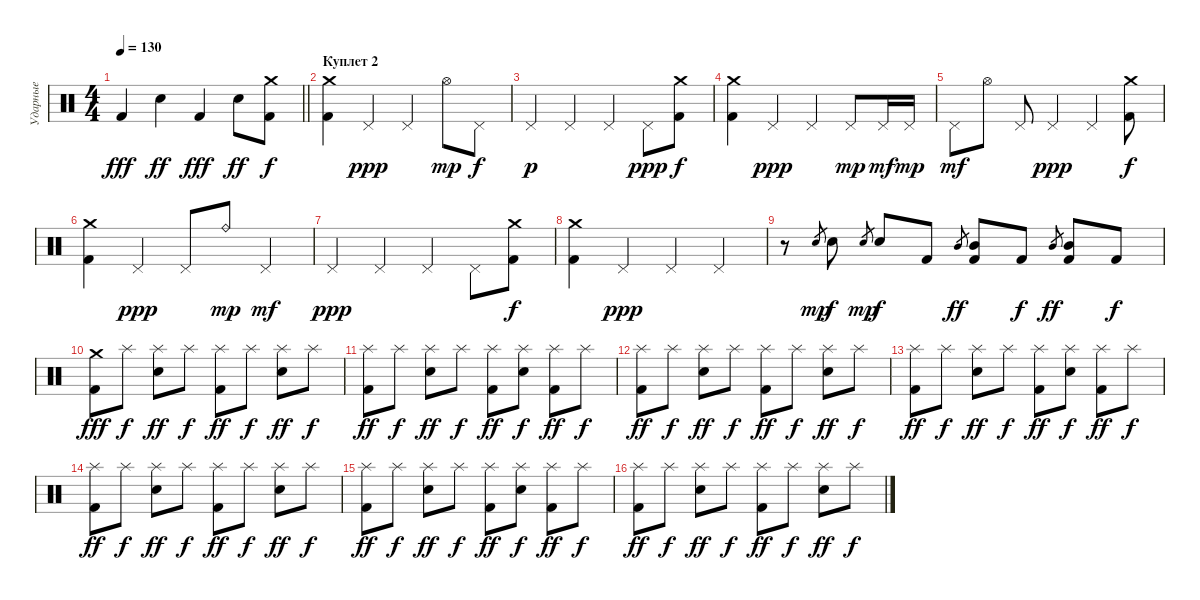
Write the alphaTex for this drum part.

\track ("Ударные" "Ударные") {instrument percussion}
\staff {score}
\articulation defaults
\ts (4 4)
\tempo 130
\clef neutral
\barLineRight lightlight
\ks c "Kick (hit) 2".4{dy fff} "Electric Snare (hit)".4{dy ff} "Kick (hit) 2".4{dy fff} "Electric Snare (hit)".8{dy ff}
("Kick (hit) 2" "Crash medium (hit)").8{dy f} |
\section ("" "Куплет 2")
("Kick (hit) 2" "Crash medium (hit)").4 "Pedal Hi-Hat (hit)".4{dy ppp} "Pedal Hi-Hat (hit)".4 "Hi-Hat (open)".8{dy mp} "Pedal Hi-Hat (hit)".8{dy f} |
"Pedal Hi-Hat (hit)".4{dy p} "Pedal Hi-Hat (hit)".4 "Pedal Hi-Hat (hit)".4 "Pedal Hi-Hat (hit)".8{dy ppp} ("Kick (hit) 2" "Crash medium (hit)").8{dy f} |
("Kick (hit) 2" "Crash medium (hit)").4 "Pedal Hi-Hat (hit)".4{dy ppp} "Pedal Hi-Hat (hit)".4 "Pedal Hi-Hat (hit)".8{dy mp} "Pedal Hi-Hat (hit)".16{dy mf} "Pedal Hi-Hat (hit)".16{dy mp} |
"Pedal Hi-Hat (hit)".8{dy mf} "Hi-Hat (open)".8 "Pedal Hi-Hat (hit)".8 "Pedal Hi-Hat (hit)".4{dy ppp} "Pedal Hi-Hat (hit)".4 ("Kick (hit) 2" "Crash medium (hit)").8{dy f} |
("Kick (hit) 2" "Crash medium (hit)").4 "Pedal Hi-Hat (hit)".4{dy ppp} "Pedal Hi-Hat (hit)".8 "Ride (bell)".8{dy mp} "Pedal Hi-Hat (hit)".4{dy mf} |
"Pedal Hi-Hat (hit)".4{dy ppp} "Pedal Hi-Hat (hit)".4 "Pedal Hi-Hat (hit)".4 "Pedal Hi-Hat (hit)".8 ("Kick (hit) 2" "Crash medium (hit)").8{dy f} |
("Kick (hit) 2" "Crash medium (hit)").4 "Pedal Hi-Hat (hit)".4{dy ppp} "Pedal Hi-Hat (hit)".4 "Pedal Hi-Hat (hit)".4 |
r.8 "Electric Snare (hit)".8{gr dy mp} "Electric Snare (hit)".8{dy f} "Electric Snare (hit)".8{gr dy mp} "Electric Snare (hit)".8{dy f} "Kick (hit) 2".8 "Mid Tom (hit)".8{gr dy ff} ("Kick (hit) 2" "Mid Tom (hit)").8 "Kick (hit) 2".8{dy f} "Mid Tom (hit)".8{gr dy ff} ("Kick (hit) 2" "Mid Tom (hit)").8 "Kick (hit) 2".8{dy f} |
("Kick (hit) 2" "Crash medium (hit)").8{dy fff} "Splash (hit)".8{dy f} ("Electric Snare (hit)" "Splash (hit)").8{dy ff} "Splash (hit)".8{dy f} ("Kick (hit) 2" "Splash (hit)").8{dy ff} "Splash (hit)".8{dy f} ("Electric Snare (hit)" "Splash (hit)").8{dy ff} "Splash (hit)".8{dy f} |
("Kick (hit) 2" "Splash (hit)").8{dy ff} "Splash (hit)".8{dy f} ("Electric Snare (hit)" "Splash (hit)").8{dy ff} "Splash (hit)".8{dy f} ("Kick (hit) 2" "Splash (hit)").8{dy ff} ("Electric Snare (hit)" "Splash (hit)").8{dy f} ("Kick (hit) 2" "Splash (hit)").8{dy ff} "Splash (hit)".8{dy f} |
("Kick (hit) 2" "Splash (hit)").8{dy ff} "Splash (hit)".8{dy f} ("Electric Snare (hit)" "Splash (hit)").8{dy ff} "Splash (hit)".8{dy f} ("Kick (hit) 2" "Splash (hit)").8{dy ff} "Splash (hit)".8{dy f} ("Electric Snare (hit)" "Splash (hit)").8{dy ff} "Splash (hit)".8{dy f} |
("Kick (hit) 2" "Splash (hit)").8{dy ff} "Splash (hit)".8{dy f} ("Electric Snare (hit)" "Splash (hit)").8{dy ff} "Splash (hit)".8{dy f} ("Kick (hit) 2" "Splash (hit)").8{dy ff} ("Electric Snare (hit)" "Splash (hit)").8{dy f} ("Kick (hit) 2" "Splash (hit)").8{dy ff} "Splash (hit)".8{dy f} |
("Kick (hit) 2" "Splash (hit)").8{dy ff} "Splash (hit)".8{dy f} ("Electric Snare (hit)" "Splash (hit)").8{dy ff} "Splash (hit)".8{dy f} ("Kick (hit) 2" "Splash (hit)").8{dy ff} "Splash (hit)".8{dy f} ("Electric Snare (hit)" "Splash (hit)").8{dy ff} "Splash (hit)".8{dy f} |
("Kick (hit) 2" "Splash (hit)").8{dy ff} "Splash (hit)".8{dy f} ("Electric Snare (hit)" "Splash (hit)").8{dy ff} "Splash (hit)".8{dy f} ("Kick (hit) 2" "Splash (hit)").8{dy ff} ("Electric Snare (hit)" "Splash (hit)").8{dy f} ("Kick (hit) 2" "Splash (hit)").8{dy ff} "Splash (hit)".8{dy f} |
("Kick (hit) 2" "Splash (hit)").8{dy ff} "Splash (hit)".8{dy f} ("Electric Snare (hit)" "Splash (hit)").8{dy ff} "Splash (hit)".8{dy f} ("Kick (hit) 2" "Splash (hit)").8{dy ff} "Splash (hit)".8{dy f} ("Electric Snare (hit)" "Splash (hit)").8{dy ff} "Splash (hit)".8{dy f}
